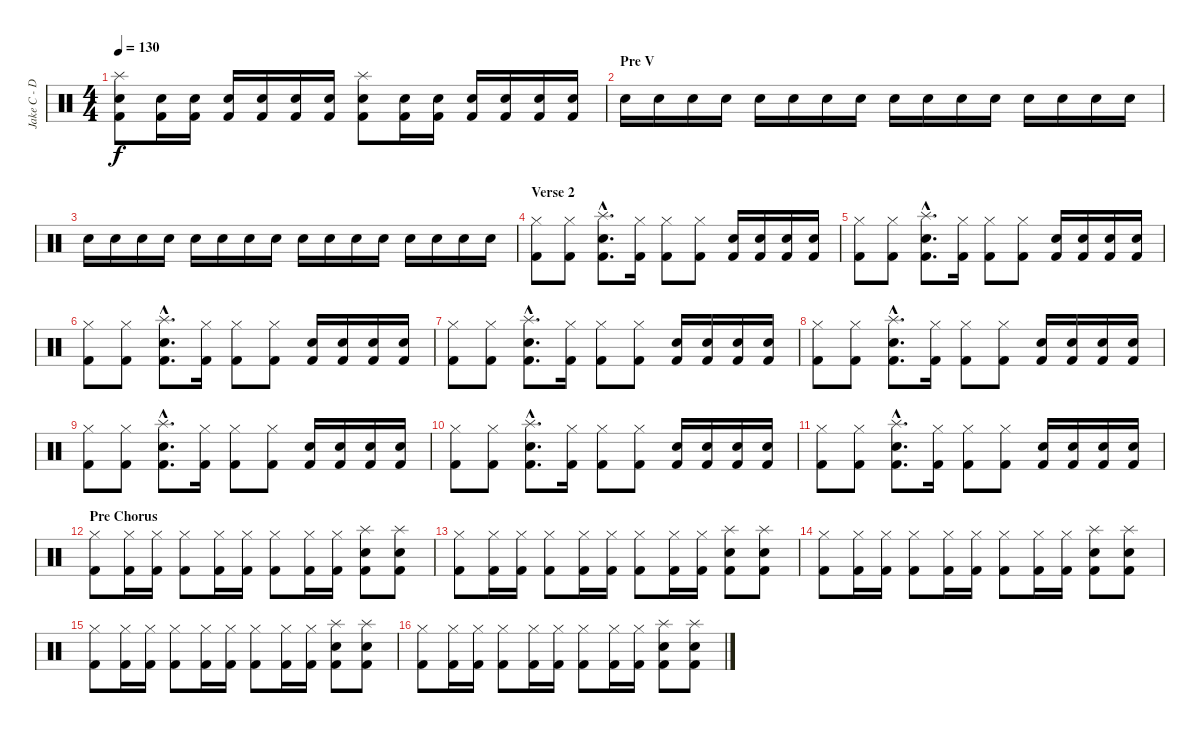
\track ("Jake C - Drums" "Jake C - D") {instrument percussion}
\staff {score}
\articulation defaults
\ts (4 4)
\tempo 130
\clef neutral
\ks c
("Splash (hit)" "Electric Snare (hit)" "Kick (hit) 2").8{dy f} ("Electric Snare (hit)" "Kick (hit) 2").16 ("Electric Snare (hit)" "Kick (hit) 2").16 ("Electric Snare (hit)" "Kick (hit) 2").16 ("Electric Snare (hit)" "Kick (hit) 2").16 ("Electric Snare (hit)" "Kick (hit) 2").16 ("Electric Snare (hit)" "Kick (hit) 2").16 ("Splash (hit)" "Electric Snare (hit)" "Kick (hit) 2").8 ("Electric Snare (hit)" "Kick (hit) 2").16 ("Electric Snare (hit)" "Kick (hit) 2").16 ("Electric Snare (hit)" "Kick (hit) 2").16 ("Electric Snare (hit)" "Kick (hit) 2").16 ("Electric Snare (hit)" "Kick (hit) 2").16 ("Electric Snare (hit)" "Kick (hit) 2").16 |
\section ("" "Pre V")
"Electric Snare (hit)".16 "Electric Snare (hit)".16 "Electric Snare (hit)".16 "Electric Snare (hit)".16 "Electric Snare (hit)".16 "Electric Snare (hit)".16 "Electric Snare (hit)".16 "Electric Snare (hit)".16 "Electric Snare (hit)".16 "Electric Snare (hit)".16 "Electric Snare (hit)".16 "Electric Snare (hit)".16 "Electric Snare (hit)".16 "Electric Snare (hit)".16 "Electric Snare (hit)".16 "Electric Snare (hit)".16 |
"Electric Snare (hit)".16 "Electric Snare (hit)".16 "Electric Snare (hit)".16 "Electric Snare (hit)".16 "Electric Snare (hit)".16 "Electric Snare (hit)".16 "Electric Snare (hit)".16 "Electric Snare (hit)".16 "Electric Snare (hit)".16 "Electric Snare (hit)".16 "Electric Snare (hit)".16 "Electric Snare (hit)".16 "Electric Snare (hit)".16 "Electric Snare (hit)".16 "Electric Snare (hit)".16 "Electric Snare (hit)".16 |
\section ("" "Verse 2")
("Hi-Hat (closed)" "Kick (hit) 2").8 ("Hi-Hat (closed)" "Kick (hit) 2").8 ("Splash (hit)"{hac} "Electric Snare (hit)"{hac} "Kick (hit) 2"{hac}).8{d} ("Hi-Hat (closed)" "Kick (hit) 2").16 ("Hi-Hat (closed)" "Kick (hit) 2").8 ("Hi-Hat (closed)" "Kick (hit) 2").8 ("Electric Snare (hit)" "Kick (hit) 2").16 ("Electric Snare (hit)" "Kick (hit) 2").16 ("Electric Snare (hit)" "Kick (hit) 2").16 ("Electric Snare (hit)" "Kick (hit) 2").16 |
("Hi-Hat (closed)" "Kick (hit) 2").8 ("Hi-Hat (closed)" "Kick (hit) 2").8 ("Splash (hit)"{hac} "Electric Snare (hit)"{hac} "Kick (hit) 2"{hac}).8{d} ("Hi-Hat (closed)" "Kick (hit) 2").16 ("Hi-Hat (closed)" "Kick (hit) 2").8 ("Hi-Hat (closed)" "Kick (hit) 2").8 ("Electric Snare (hit)" "Kick (hit) 2").16 ("Electric Snare (hit)" "Kick (hit) 2").16 ("Electric Snare (hit)" "Kick (hit) 2").16 ("Electric Snare (hit)" "Kick (hit) 2").16 |
("Hi-Hat (closed)" "Kick (hit) 2").8 ("Hi-Hat (closed)" "Kick (hit) 2").8 ("Splash (hit)"{hac} "Electric Snare (hit)"{hac} "Kick (hit) 2"{hac}).8{d} ("Hi-Hat (closed)" "Kick (hit) 2").16 ("Hi-Hat (closed)" "Kick (hit) 2").8 ("Hi-Hat (closed)" "Kick (hit) 2").8 ("Electric Snare (hit)" "Kick (hit) 2").16 ("Electric Snare (hit)" "Kick (hit) 2").16 ("Electric Snare (hit)" "Kick (hit) 2").16 ("Electric Snare (hit)" "Kick (hit) 2").16 |
("Hi-Hat (closed)" "Kick (hit) 2").8 ("Hi-Hat (closed)" "Kick (hit) 2").8 ("Splash (hit)"{hac} "Electric Snare (hit)"{hac} "Kick (hit) 2"{hac}).8{d} ("Hi-Hat (closed)" "Kick (hit) 2").16 ("Hi-Hat (closed)" "Kick (hit) 2").8 ("Hi-Hat (closed)" "Kick (hit) 2").8 ("Electric Snare (hit)" "Kick (hit) 2").16 ("Electric Snare (hit)" "Kick (hit) 2").16 ("Electric Snare (hit)" "Kick (hit) 2").16 ("Electric Snare (hit)" "Kick (hit) 2").16 |
("Hi-Hat (closed)" "Kick (hit) 2").8 ("Hi-Hat (closed)" "Kick (hit) 2").8 ("Splash (hit)"{hac} "Electric Snare (hit)"{hac} "Kick (hit) 2"{hac}).8{d} ("Hi-Hat (closed)" "Kick (hit) 2").16 ("Hi-Hat (closed)" "Kick (hit) 2").8 ("Hi-Hat (closed)" "Kick (hit) 2").8 ("Electric Snare (hit)" "Kick (hit) 2").16 ("Electric Snare (hit)" "Kick (hit) 2").16 ("Electric Snare (hit)" "Kick (hit) 2").16 ("Electric Snare (hit)" "Kick (hit) 2").16 |
("Hi-Hat (closed)" "Kick (hit) 2").8 ("Hi-Hat (closed)" "Kick (hit) 2").8 ("Splash (hit)"{hac} "Electric Snare (hit)"{hac} "Kick (hit) 2"{hac}).8{d} ("Hi-Hat (closed)" "Kick (hit) 2").16 ("Hi-Hat (closed)" "Kick (hit) 2").8 ("Hi-Hat (closed)" "Kick (hit) 2").8 ("Electric Snare (hit)" "Kick (hit) 2").16 ("Electric Snare (hit)" "Kick (hit) 2").16 ("Electric Snare (hit)" "Kick (hit) 2").16 ("Electric Snare (hit)" "Kick (hit) 2").16 |
("Hi-Hat (closed)" "Kick (hit) 2").8 ("Hi-Hat (closed)" "Kick (hit) 2").8 ("Splash (hit)"{hac} "Electric Snare (hit)"{hac} "Kick (hit) 2"{hac}).8{d} ("Hi-Hat (closed)" "Kick (hit) 2").16 ("Hi-Hat (closed)" "Kick (hit) 2").8 ("Hi-Hat (closed)" "Kick (hit) 2").8 ("Electric Snare (hit)" "Kick (hit) 2").16 ("Electric Snare (hit)" "Kick (hit) 2").16 ("Electric Snare (hit)" "Kick (hit) 2").16 ("Electric Snare (hit)" "Kick (hit) 2").16 |
("Hi-Hat (closed)" "Kick (hit) 2").8 ("Hi-Hat (closed)" "Kick (hit) 2").8 ("Splash (hit)"{hac} "Electric Snare (hit)"{hac} "Kick (hit) 2"{hac}).8{d} ("Hi-Hat (closed)" "Kick (hit) 2").16 ("Hi-Hat (closed)" "Kick (hit) 2").8 ("Hi-Hat (closed)" "Kick (hit) 2").8 ("Electric Snare (hit)" "Kick (hit) 2").16 ("Electric Snare (hit)" "Kick (hit) 2").16 ("Electric Snare (hit)" "Kick (hit) 2").16 ("Electric Snare (hit)" "Kick (hit) 2").16 |
\section ("" "Pre Chorus")
("Hi-Hat (closed)" "Kick (hit) 2").8 ("Hi-Hat (closed)" "Kick (hit) 2").16 ("Hi-Hat (closed)" "Kick (hit) 2").16 ("Hi-Hat (closed)" "Kick (hit) 2").8 ("Hi-Hat (closed)" "Kick (hit) 2").16 ("Hi-Hat (closed)" "Kick (hit) 2").16 ("Hi-Hat (closed)" "Kick (hit) 2").8 ("Hi-Hat (closed)" "Kick (hit) 2").16 ("Hi-Hat (closed)" "Kick (hit) 2").16 ("Splash (hit)" "Electric Snare (hit)" "Kick (hit) 2").8 ("Splash (hit)" "Electric Snare (hit)" "Kick (hit) 2").8 |
("Hi-Hat (closed)" "Kick (hit) 2").8 ("Hi-Hat (closed)" "Kick (hit) 2").16 ("Hi-Hat (closed)" "Kick (hit) 2").16 ("Hi-Hat (closed)" "Kick (hit) 2").8 ("Hi-Hat (closed)" "Kick (hit) 2").16 ("Hi-Hat (closed)" "Kick (hit) 2").16 ("Hi-Hat (closed)" "Kick (hit) 2").8 ("Hi-Hat (closed)" "Kick (hit) 2").16 ("Hi-Hat (closed)" "Kick (hit) 2").16 ("Splash (hit)" "Electric Snare (hit)" "Kick (hit) 2").8 ("Splash (hit)" "Electric Snare (hit)" "Kick (hit) 2").8 |
("Hi-Hat (closed)" "Kick (hit) 2").8 ("Hi-Hat (closed)" "Kick (hit) 2").16 ("Hi-Hat (closed)" "Kick (hit) 2").16 ("Hi-Hat (closed)" "Kick (hit) 2").8 ("Hi-Hat (closed)" "Kick (hit) 2").16 ("Hi-Hat (closed)" "Kick (hit) 2").16 ("Hi-Hat (closed)" "Kick (hit) 2").8 ("Hi-Hat (closed)" "Kick (hit) 2").16 ("Hi-Hat (closed)" "Kick (hit) 2").16 ("Splash (hit)" "Electric Snare (hit)" "Kick (hit) 2").8 ("Splash (hit)" "Electric Snare (hit)" "Kick (hit) 2").8 |
("Hi-Hat (closed)" "Kick (hit) 2").8 ("Hi-Hat (closed)" "Kick (hit) 2").16 ("Hi-Hat (closed)" "Kick (hit) 2").16 ("Hi-Hat (closed)" "Kick (hit) 2").8 ("Hi-Hat (closed)" "Kick (hit) 2").16 ("Hi-Hat (closed)" "Kick (hit) 2").16 ("Hi-Hat (closed)" "Kick (hit) 2").8 ("Hi-Hat (closed)" "Kick (hit) 2").16 ("Hi-Hat (closed)" "Kick (hit) 2").16 ("Splash (hit)" "Electric Snare (hit)" "Kick (hit) 2").8 ("Splash (hit)" "Electric Snare (hit)" "Kick (hit) 2").8 |
("Hi-Hat (closed)" "Kick (hit) 2").8 ("Hi-Hat (closed)" "Kick (hit) 2").16 ("Hi-Hat (closed)" "Kick (hit) 2").16 ("Hi-Hat (closed)" "Kick (hit) 2").8 ("Hi-Hat (closed)" "Kick (hit) 2").16 ("Hi-Hat (closed)" "Kick (hit) 2").16 ("Hi-Hat (closed)" "Kick (hit) 2").8 ("Hi-Hat (closed)" "Kick (hit) 2").16 ("Hi-Hat (closed)" "Kick (hit) 2").16 ("Splash (hit)" "Electric Snare (hit)" "Kick (hit) 2").8 ("Splash (hit)" "Electric Snare (hit)" "Kick (hit) 2").8
